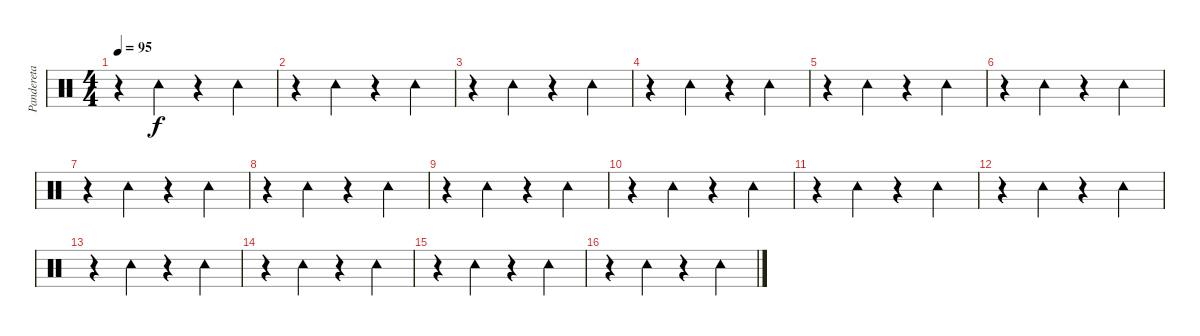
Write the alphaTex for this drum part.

\track ("Pandereta" "Pandereta") {instrument percussion}
\staff {score}
\articulation defaults
\ts (4 4)
\tempo 95
\clef neutral
\ks c
r.4{dy f} "Tambourine (hit)".4 r.4 "Tambourine (hit)".4 |
r.4 "Tambourine (hit)".4 r.4 "Tambourine (hit)".4 |
r.4 "Tambourine (hit)".4 r.4 "Tambourine (hit)".4 |
r.4 "Tambourine (hit)".4 r.4 "Tambourine (hit)".4 |
r.4 "Tambourine (hit)".4 r.4 "Tambourine (hit)".4 |
r.4 "Tambourine (hit)".4 r.4 "Tambourine (hit)".4 |
r.4 "Tambourine (hit)".4 r.4 "Tambourine (hit)".4 |
r.4 "Tambourine (hit)".4 r.4 "Tambourine (hit)".4 |
r.4 "Tambourine (hit)".4 r.4 "Tambourine (hit)".4 |
r.4 "Tambourine (hit)".4 r.4 "Tambourine (hit)".4 |
r.4 "Tambourine (hit)".4 r.4 "Tambourine (hit)".4 |
r.4 "Tambourine (hit)".4 r.4 "Tambourine (hit)".4 |
r.4 "Tambourine (hit)".4 r.4 "Tambourine (hit)".4 |
r.4 "Tambourine (hit)".4 r.4 "Tambourine (hit)".4 |
r.4 "Tambourine (hit)".4 r.4 "Tambourine (hit)".4 |
r.4 "Tambourine (hit)".4 r.4 "Tambourine (hit)".4
